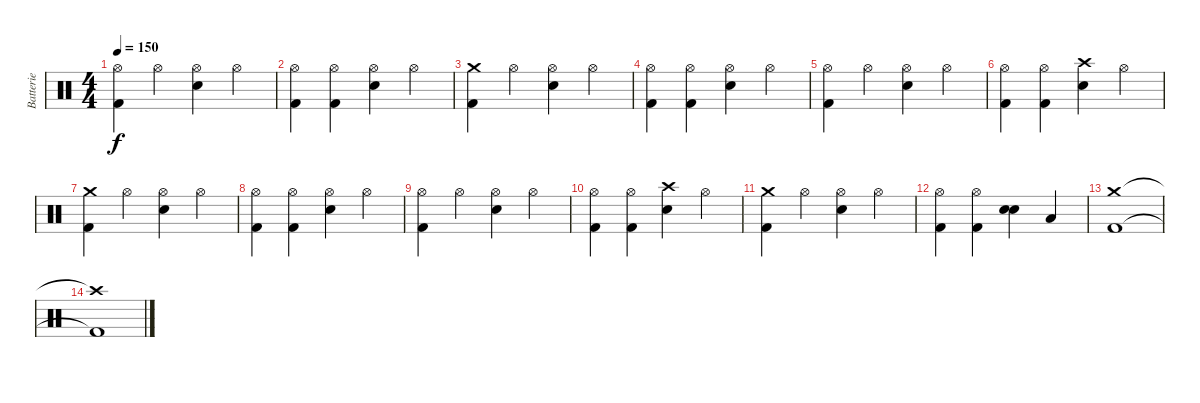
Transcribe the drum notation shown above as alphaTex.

\track ("Batterie" "Batterie") {instrument percussion}
\staff {score}
\articulation defaults
\ts (4 4)
\tempo 150
\clef neutral
\ks c
("Hi-Hat (open)" "Kick (hit) 2").4{dy f} "Hi-Hat (open)".4 ("Hi-Hat (open)" "Electric Snare (hit)").4 "Hi-Hat (open)".4 |
("Hi-Hat (open)" "Kick (hit) 2").4 ("Hi-Hat (open)" "Kick (hit) 2").4 ("Hi-Hat (open)" "Electric Snare (hit)").4 "Hi-Hat (open)".4 |
("Crash medium (hit)" "Kick (hit) 2").4 "Hi-Hat (open)".4 ("Hi-Hat (open)" "Electric Snare (hit)").4 "Hi-Hat (open)".4 |
("Hi-Hat (open)" "Kick (hit) 2").4 ("Hi-Hat (open)" "Kick (hit) 2").4 ("Hi-Hat (open)" "Electric Snare (hit)").4 "Hi-Hat (open)".4 |
("Hi-Hat (open)" "Kick (hit) 2").4 "Hi-Hat (open)".4 ("Hi-Hat (open)" "Electric Snare (hit)").4 "Hi-Hat (open)".4 |
("Hi-Hat (open)" "Kick (hit) 2").4 ("Hi-Hat (open)" "Kick (hit) 2").4 ("Crash high (hit)" "Electric Snare (hit)").4 "Hi-Hat (open)".4 |
("Crash medium (hit)" "Kick (hit) 2").4 "Hi-Hat (open)".4 ("Hi-Hat (open)" "Electric Snare (hit)").4 "Hi-Hat (open)".4 |
("Hi-Hat (open)" "Kick (hit) 2").4 ("Hi-Hat (open)" "Kick (hit) 2").4 ("Hi-Hat (open)" "Electric Snare (hit)").4 "Hi-Hat (open)".4 |
("Hi-Hat (open)" "Kick (hit) 2").4 "Hi-Hat (open)".4 ("Hi-Hat (open)" "Electric Snare (hit)").4 "Hi-Hat (open)".4 |
("Hi-Hat (open)" "Kick (hit) 2").4 ("Hi-Hat (open)" "Kick (hit) 2").4 ("Crash high (hit)" "Electric Snare (hit)").4 "Hi-Hat (open)".4 |
("Crash medium (hit)" "Kick (hit) 2").4 "Hi-Hat (open)".4 ("Hi-Hat (open)" "Electric Snare (hit)").4 "Hi-Hat (open)".4 |
("Hi-Hat (open)" "Kick (hit) 2").4 ("Hi-Hat (open)" "Kick (hit) 2").4 ("Electric Snare (hit)" "Electric Snare (hit)").4{bu 120} "Low Tom (hit)".4 |
("Crash medium (hit)" "Kick (hit) 2").1 |
("Crash high (hit)"{t} "Kick (hit) 2"{t}).1
